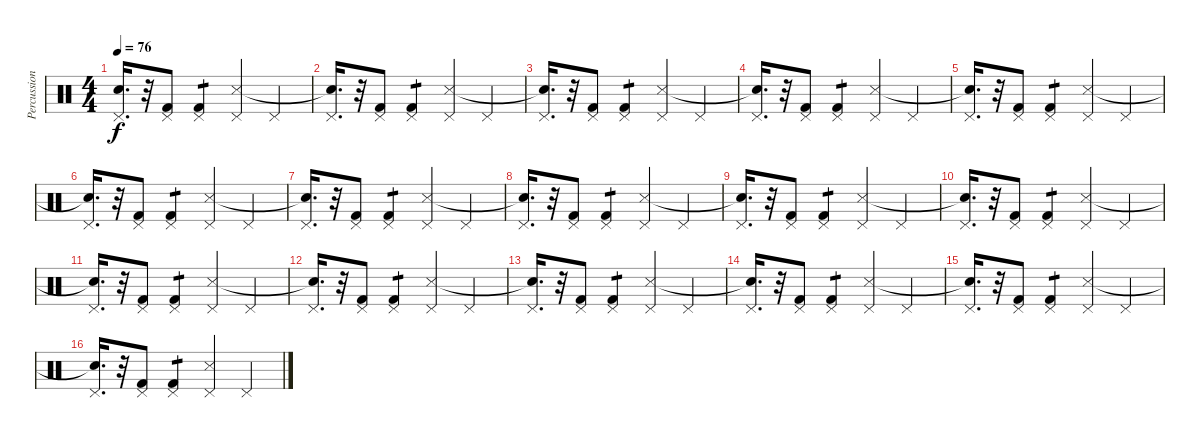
\track ("Percussion" "Percussion") {instrument percussion}
\staff {score}
\articulation defaults
\ts (4 4)
\tempo 76
\clef neutral
\ks c
("Pedal Hi-Hat (hit)" "Snare (hit)"{t}).16{d dy f} r.32 ("Pedal Hi-Hat (hit)" "Kick (hit) 2").8 ("Pedal Hi-Hat (hit)" "Kick (hit) 2").4{tp 1} ("Pedal Hi-Hat (hit)" "Snare (side stick) 3").4 "Pedal Hi-Hat (hit)".4 |
("Pedal Hi-Hat (hit)" "Snare (hit)"{t}).16{d} r.32 ("Pedal Hi-Hat (hit)" "Kick (hit) 2").8 ("Pedal Hi-Hat (hit)" "Kick (hit) 2").4{tp 1} ("Pedal Hi-Hat (hit)" "Snare (side stick) 3").4 "Pedal Hi-Hat (hit)".4 |
("Pedal Hi-Hat (hit)" "Snare (hit)"{t}).16{d} r.32 ("Pedal Hi-Hat (hit)" "Kick (hit) 2").8 ("Pedal Hi-Hat (hit)" "Kick (hit) 2").4{tp 1} ("Pedal Hi-Hat (hit)" "Snare (side stick) 3").4 "Pedal Hi-Hat (hit)".4 |
("Pedal Hi-Hat (hit)" "Snare (hit)"{t}).16{d} r.32 ("Pedal Hi-Hat (hit)" "Kick (hit) 2").8 ("Pedal Hi-Hat (hit)" "Kick (hit) 2").4{tp 1} ("Pedal Hi-Hat (hit)" "Snare (side stick) 3").4 "Pedal Hi-Hat (hit)".4 |
("Pedal Hi-Hat (hit)" "Snare (hit)"{t}).16{d} r.32 ("Pedal Hi-Hat (hit)" "Kick (hit) 2").8 ("Pedal Hi-Hat (hit)" "Kick (hit) 2").4{tp 1} ("Pedal Hi-Hat (hit)" "Snare (side stick) 3").4 "Pedal Hi-Hat (hit)".4 |
("Pedal Hi-Hat (hit)" "Snare (hit)"{t}).16{d} r.32 ("Pedal Hi-Hat (hit)" "Kick (hit) 2").8 ("Pedal Hi-Hat (hit)" "Kick (hit) 2").4{tp 1} ("Pedal Hi-Hat (hit)" "Snare (side stick) 3").4 "Pedal Hi-Hat (hit)".4 |
("Pedal Hi-Hat (hit)" "Snare (hit)"{t}).16{d} r.32 ("Pedal Hi-Hat (hit)" "Kick (hit) 2").8 ("Pedal Hi-Hat (hit)" "Kick (hit) 2").4{tp 1} ("Pedal Hi-Hat (hit)" "Snare (side stick) 3").4 "Pedal Hi-Hat (hit)".4 |
("Pedal Hi-Hat (hit)" "Snare (hit)"{t}).16{d} r.32 ("Pedal Hi-Hat (hit)" "Kick (hit) 2").8 ("Pedal Hi-Hat (hit)" "Kick (hit) 2").4{tp 1} ("Pedal Hi-Hat (hit)" "Snare (side stick) 3").4 "Pedal Hi-Hat (hit)".4 |
("Pedal Hi-Hat (hit)" "Snare (hit)"{t}).16{d} r.32 ("Pedal Hi-Hat (hit)" "Kick (hit) 2").8 ("Pedal Hi-Hat (hit)" "Kick (hit) 2").4{tp 1} ("Pedal Hi-Hat (hit)" "Snare (side stick) 3").4 "Pedal Hi-Hat (hit)".4 |
("Pedal Hi-Hat (hit)" "Snare (hit)"{t}).16{d} r.32 ("Pedal Hi-Hat (hit)" "Kick (hit) 2").8 ("Pedal Hi-Hat (hit)" "Kick (hit) 2").4{tp 1} ("Pedal Hi-Hat (hit)" "Snare (side stick) 3").4 "Pedal Hi-Hat (hit)".4 |
("Pedal Hi-Hat (hit)" "Snare (hit)"{t}).16{d} r.32 ("Pedal Hi-Hat (hit)" "Kick (hit) 2").8 ("Pedal Hi-Hat (hit)" "Kick (hit) 2").4{tp 1} ("Pedal Hi-Hat (hit)" "Snare (side stick) 3").4 "Pedal Hi-Hat (hit)".4 |
("Pedal Hi-Hat (hit)" "Snare (hit)"{t}).16{d} r.32 ("Pedal Hi-Hat (hit)" "Kick (hit) 2").8 ("Pedal Hi-Hat (hit)" "Kick (hit) 2").4{tp 1} ("Pedal Hi-Hat (hit)" "Snare (side stick) 3").4 "Pedal Hi-Hat (hit)".4 |
("Pedal Hi-Hat (hit)" "Snare (hit)"{t}).16{d} r.32 ("Pedal Hi-Hat (hit)" "Kick (hit) 2").8 ("Pedal Hi-Hat (hit)" "Kick (hit) 2").4{tp 1} ("Pedal Hi-Hat (hit)" "Snare (side stick) 3").4 "Pedal Hi-Hat (hit)".4 |
("Pedal Hi-Hat (hit)" "Snare (hit)"{t}).16{d} r.32 ("Pedal Hi-Hat (hit)" "Kick (hit) 2").8 ("Pedal Hi-Hat (hit)" "Kick (hit) 2").4{tp 1} ("Pedal Hi-Hat (hit)" "Snare (side stick) 3").4 "Pedal Hi-Hat (hit)".4 |
("Pedal Hi-Hat (hit)" "Snare (hit)"{t}).16{d} r.32 ("Pedal Hi-Hat (hit)" "Kick (hit) 2").8 ("Pedal Hi-Hat (hit)" "Kick (hit) 2").4{tp 1} ("Pedal Hi-Hat (hit)" "Snare (side stick) 3").4 "Pedal Hi-Hat (hit)".4 |
("Pedal Hi-Hat (hit)" "Snare (hit)"{t}).16{d} r.32 ("Pedal Hi-Hat (hit)" "Kick (hit) 2").8 ("Pedal Hi-Hat (hit)" "Kick (hit) 2").4{tp 1} ("Pedal Hi-Hat (hit)" "Snare (side stick) 3").4 "Pedal Hi-Hat (hit)".4
